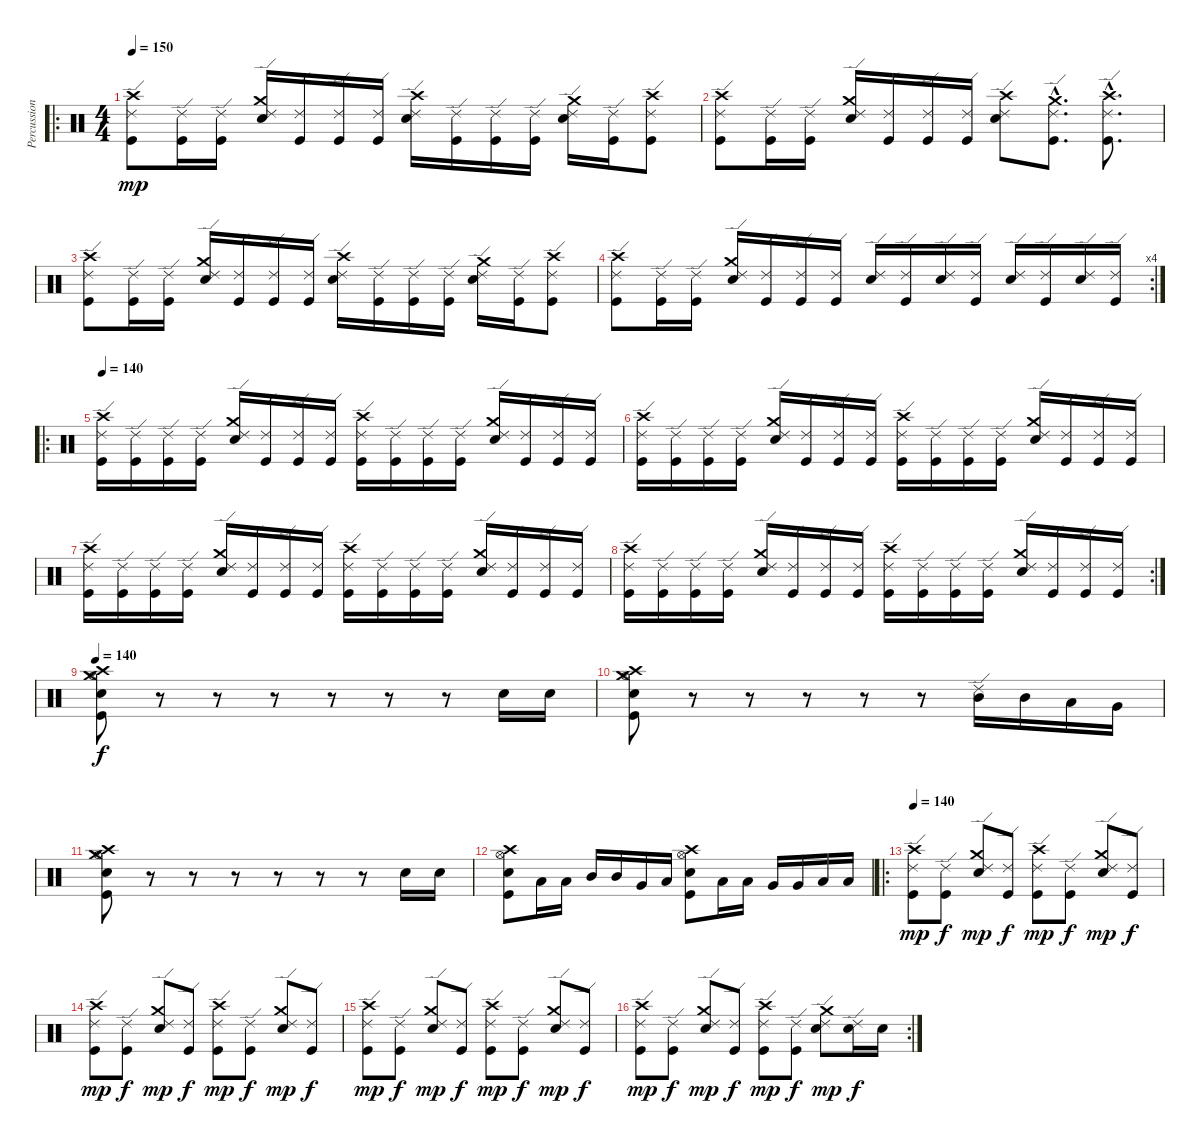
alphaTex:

\track ("Percussion" "Percussion") {instrument percussion}
\staff {score}
\articulation defaults
\ro
\ts (4 4)
\tempo 150
\clef neutral
\ks c
("Crash high (hit)" "Ride (edge) 2" "Kick (hit)").8{dy mp} ("Ride (edge) 2" "Kick (hit)").16 ("Ride (edge) 2" "Kick (hit)").16 ("Crash medium (hit)" "Ride (edge) 2" "Snare (hit) 2").16 ("Ride (edge) 2" "Kick (hit)").16 ("Ride (edge) 2" "Kick (hit)").16 ("Ride (edge) 2" "Kick (hit)").16 ("Ride (edge) 2" "Crash high (hit)" "Snare (hit) 2").16 ("Ride (edge) 2" "Kick (hit)").16 ("Ride (edge) 2" "Kick (hit)").16 ("Ride (edge) 2" "Kick (hit)").16 ("Ride (edge) 2" "Crash medium (hit)" "Snare (hit) 2").16 ("Ride (edge) 2" "Kick (hit)").16 ("Ride (edge) 2" "Crash high (hit)" "Kick (hit)").8 |
("Crash high (hit)" "Ride (edge) 2" "Kick (hit)").8 ("Ride (edge) 2" "Kick (hit)").16 ("Ride (edge) 2" "Kick (hit)").16 ("Crash medium (hit)" "Ride (edge) 2" "Snare (hit) 2").16 ("Ride (edge) 2" "Kick (hit)").16 ("Ride (edge) 2" "Kick (hit)").16 ("Ride (edge) 2" "Kick (hit)").16 ("Crash high (hit)" "Ride (edge) 2" "Snare (hit) 2").8 ("Crash medium (hit)"{hac} "Ride (edge) 2"{hac} "Kick (hit)"{hac}).8{d} ("Crash high (hit)"{hac} "Ride (edge) 2"{hac} "Kick (hit)"{hac}).8{d} |
("Crash high (hit)" "Ride (edge) 2" "Kick (hit)").8 ("Ride (edge) 2" "Kick (hit)").16 ("Ride (edge) 2" "Kick (hit)").16 ("Crash medium (hit)" "Ride (edge) 2" "Snare (hit) 2").16 ("Ride (edge) 2" "Kick (hit)").16 ("Ride (edge) 2" "Kick (hit)").16 ("Ride (edge) 2" "Kick (hit)").16 ("Ride (edge) 2" "Crash high (hit)" "Snare (hit) 2").16 ("Ride (edge) 2" "Kick (hit)").16 ("Ride (edge) 2" "Kick (hit)").16 ("Ride (edge) 2" "Kick (hit)").16 ("Ride (edge) 2" "Crash medium (hit)" "Snare (hit) 2").16 ("Ride (edge) 2" "Kick (hit)").16 ("Ride (edge) 2" "Crash high (hit)" "Kick (hit)").8 |
\rc 4
("Crash high (hit)" "Ride (edge) 2" "Kick (hit)").8 ("Ride (edge) 2" "Kick (hit)").16 ("Ride (edge) 2" "Kick (hit)").16 ("Crash medium (hit)" "Ride (edge) 2" "Snare (hit) 2").16 ("Ride (edge) 2" "Kick (hit)").16 ("Ride (edge) 2" "Kick (hit)").16 ("Ride (edge) 2" "Kick (hit)").16 ("Snare (hit) 2" "Ride (edge) 2").16 ("Ride (edge) 2" "Kick (hit)").16 ("Ride (edge) 2" "Snare (hit) 2").16 ("Ride (edge) 2" "Kick (hit)").16 ("Snare (hit) 2" "Ride (edge) 2").16 ("Ride (edge) 2" "Kick (hit)").16 ("Ride (edge) 2" "Snare (hit) 2").16 ("Ride (edge) 2" "Kick (hit)").16 |
\ro
\tempo 140
("Crash high (hit)" "Ride (edge) 2" "Kick (hit)").16 ("Ride (edge) 2" "Kick (hit)").16 ("Ride (edge) 2" "Kick (hit)").16 ("Ride (edge) 2" "Kick (hit)").16 ("Crash medium (hit)" "Ride (edge) 2" "Snare (hit) 2").16 ("Ride (edge) 2" "Kick (hit)").16 ("Ride (edge) 2" "Kick (hit)").16 ("Ride (edge) 2" "Kick (hit)").16 ("Crash high (hit)" "Ride (edge) 2" "Kick (hit)").16 ("Ride (edge) 2" "Kick (hit)").16 ("Ride (edge) 2" "Kick (hit)").16 ("Ride (edge) 2" "Kick (hit)").16 ("Crash medium (hit)" "Ride (edge) 2" "Snare (hit) 2").16 ("Ride (edge) 2" "Kick (hit)").16 ("Ride (edge) 2" "Kick (hit)").16 ("Ride (edge) 2" "Kick (hit)").16 |
("Crash high (hit)" "Ride (edge) 2" "Kick (hit)").16 ("Ride (edge) 2" "Kick (hit)").16 ("Ride (edge) 2" "Kick (hit)").16 ("Ride (edge) 2" "Kick (hit)").16 ("Crash medium (hit)" "Ride (edge) 2" "Snare (hit) 2").16 ("Ride (edge) 2" "Kick (hit)").16 ("Ride (edge) 2" "Kick (hit)").16 ("Ride (edge) 2" "Kick (hit)").16 ("Crash high (hit)" "Ride (edge) 2" "Kick (hit)").16 ("Ride (edge) 2" "Kick (hit)").16 ("Ride (edge) 2" "Kick (hit)").16 ("Ride (edge) 2" "Kick (hit)").16 ("Crash medium (hit)" "Ride (edge) 2" "Snare (hit) 2").16 ("Ride (edge) 2" "Kick (hit)").16 ("Ride (edge) 2" "Kick (hit)").16 ("Ride (edge) 2" "Kick (hit)").16 |
("Crash high (hit)" "Ride (edge) 2" "Kick (hit)").16 ("Ride (edge) 2" "Kick (hit)").16 ("Ride (edge) 2" "Kick (hit)").16 ("Ride (edge) 2" "Kick (hit)").16 ("Crash medium (hit)" "Ride (edge) 2" "Snare (hit) 2").16 ("Ride (edge) 2" "Kick (hit)").16 ("Ride (edge) 2" "Kick (hit)").16 ("Ride (edge) 2" "Kick (hit)").16 ("Crash high (hit)" "Ride (edge) 2" "Kick (hit)").16 ("Ride (edge) 2" "Kick (hit)").16 ("Ride (edge) 2" "Kick (hit)").16 ("Ride (edge) 2" "Kick (hit)").16 ("Crash medium (hit)" "Ride (edge) 2" "Snare (hit) 2").16 ("Ride (edge) 2" "Kick (hit)").16 ("Ride (edge) 2" "Kick (hit)").16 ("Ride (edge) 2" "Kick (hit)").16 |
\rc 2
("Crash high (hit)" "Ride (edge) 2" "Kick (hit)").16 ("Ride (edge) 2" "Kick (hit)").16 ("Ride (edge) 2" "Kick (hit)").16 ("Ride (edge) 2" "Kick (hit)").16 ("Crash medium (hit)" "Ride (edge) 2" "Snare (hit) 2").16 ("Ride (edge) 2" "Kick (hit)").16 ("Ride (edge) 2" "Kick (hit)").16 ("Ride (edge) 2" "Kick (hit)").16 ("Crash high (hit)" "Ride (edge) 2" "Kick (hit)").16 ("Ride (edge) 2" "Kick (hit)").16 ("Ride (edge) 2" "Kick (hit)").16 ("Ride (edge) 2" "Kick (hit)").16 ("Crash medium (hit)" "Ride (edge) 2" "Snare (hit) 2").16 ("Ride (edge) 2" "Kick (hit)").16 ("Ride (edge) 2" "Kick (hit)").16 ("Ride (edge) 2" "Kick (hit)").16 |
\tempo 140
("Crash medium (hit)" "Crash high (hit)" "Hi-Hat (open)" "Snare (hit) 2" "Kick (hit)").8{dy f} r.8 r.8 r.8 r.8 r.8 r.8 "Snare (hit) 2".16 "Snare (hit) 2".16 |
("Crash medium (hit)" "Crash high (hit)" "Hi-Hat (open)" "Snare (hit) 2" "Kick (hit)").8 r.8 r.8 r.8 r.8 r.8 ("Ride (edge) 2" "Mid Tom (hit)").16 "Mid Tom (hit)".16 "Low Tom (hit)".16 "Very Low Tom (hit)".16 |
("Crash medium (hit)" "Crash high (hit)" "Hi-Hat (open)" "Snare (hit) 2" "Kick (hit)").8 r.8 r.8 r.8 r.8 r.8 r.8 "Snare (hit) 2".16 "Snare (hit) 2".16 |
("Hi-Hat (open)" "Crash high (hit)" "Snare (hit) 2" "Kick (hit)").8 "Low Tom (hit)".16 "Low Tom (hit)".16 "Mid Tom (hit)".16 "Mid Tom (hit)".16 "Very Low Tom (hit)".16 "Low Floor Tom (hit)".16 ("Hi-Hat (open)" "Crash high (hit)" "Snare (hit) 2" "Kick (hit)").8 "Low Tom (hit)".16 "Low Tom (hit)".16 "Very Low Tom (hit)".16 "Very Low Tom (hit)".16 "Low Tom (hit)".16 "Low Tom (hit)".16 |
\ro
\tempo 140
("Crash high (hit)" "Ride (edge) 2" "Kick (hit)").8{dy mp} ("Ride (edge) 2" "Kick (hit)").8{dy f} ("Crash medium (hit)" "Ride (edge) 2" "Snare (hit) 2").8{dy mp} ("Ride (edge) 2" "Kick (hit)").8{dy f} ("Crash high (hit)" "Ride (edge) 2" "Kick (hit)").8{dy mp} ("Ride (edge) 2" "Kick (hit)").8{dy f} ("Crash medium (hit)" "Ride (edge) 2" "Snare (hit) 2").8{dy mp} ("Ride (edge) 2" "Kick (hit)").8{dy f} |
("Crash high (hit)" "Ride (edge) 2" "Kick (hit)").8{dy mp} ("Ride (edge) 2" "Kick (hit)").8{dy f} ("Crash medium (hit)" "Ride (edge) 2" "Snare (hit) 2").8{dy mp} ("Ride (edge) 2" "Kick (hit)").8{dy f} ("Crash high (hit)" "Ride (edge) 2" "Kick (hit)").8{dy mp} ("Ride (edge) 2" "Kick (hit)").8{dy f} ("Crash medium (hit)" "Ride (edge) 2" "Snare (hit) 2").8{dy mp} ("Ride (edge) 2" "Kick (hit)").8{dy f} |
("Crash high (hit)" "Ride (edge) 2" "Kick (hit)").8{dy mp} ("Ride (edge) 2" "Kick (hit)").8{dy f} ("Crash medium (hit)" "Ride (edge) 2" "Snare (hit) 2").8{dy mp} ("Ride (edge) 2" "Kick (hit)").8{dy f} ("Crash high (hit)" "Ride (edge) 2" "Kick (hit)").8{dy mp} ("Ride (edge) 2" "Kick (hit)").8{dy f} ("Crash medium (hit)" "Ride (edge) 2" "Snare (hit) 2").8{dy mp} ("Ride (edge) 2" "Kick (hit)").8{dy f} |
\rc 2
("Crash high (hit)" "Ride (edge) 2" "Kick (hit)").8{dy mp} ("Ride (edge) 2" "Kick (hit)").8{dy f} ("Crash medium (hit)" "Ride (edge) 2" "Snare (hit) 2").8{dy mp} ("Ride (edge) 2" "Kick (hit)").8{dy f} ("Crash high (hit)" "Ride (edge) 2" "Kick (hit)").8{dy mp} ("Ride (edge) 2" "Kick (hit)").8{dy f} ("Crash medium (hit)" "Ride (edge) 2" "Snare (hit) 2").8{dy mp} ("Ride (edge) 2" "Snare (hit) 2").16{dy f} "Snare (hit) 2".16
